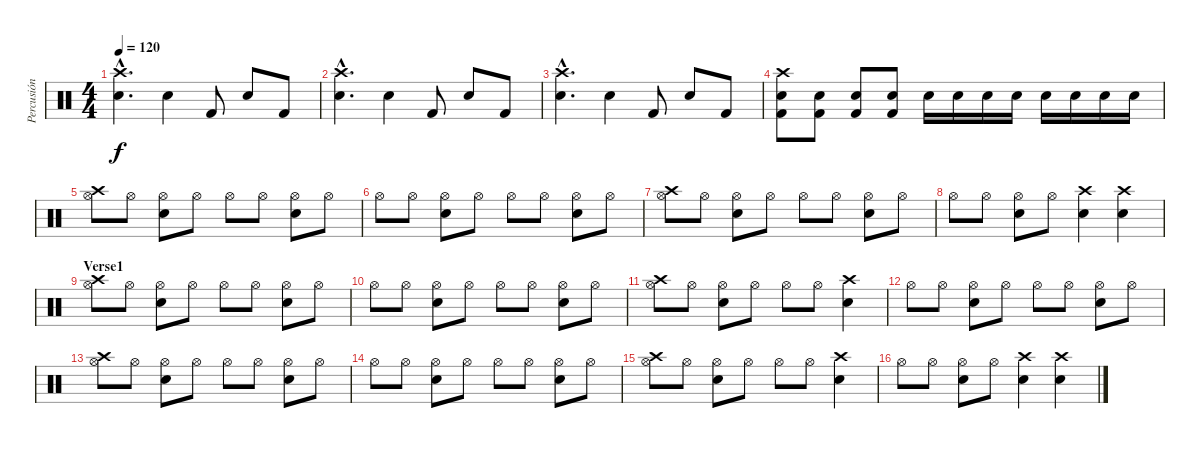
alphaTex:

\track ("Percusión" "Percusión") {instrument percussion}
\staff {score}
\articulation defaults
\ts (4 4)
\tempo 120
\clef neutral
\ks c
("Crash high (hit)"{hac} "Snare (hit) 2"{hac}).4{d dy f} "Snare (hit) 2".4 "Kick (hit) 2".8 "Snare (hit) 2".8 "Kick (hit) 2".8 |
("Crash high (hit)"{hac} "Snare (hit) 2"{hac}).4{d} "Snare (hit) 2".4 "Kick (hit) 2".8 "Snare (hit) 2".8 "Kick (hit) 2".8 |
("Crash high (hit)"{hac} "Snare (hit) 2"{hac}).4{d} "Snare (hit) 2".4 "Kick (hit) 2".8 "Snare (hit) 2".8 "Kick (hit) 2".8 |
("Crash high (hit)" "Snare (hit) 2" "Kick (hit) 2").8 ("Snare (hit) 2" "Kick (hit) 2").8 ("Snare (hit) 2" "Kick (hit) 2").8 ("Snare (hit) 2" "Kick (hit) 2").8 "Snare (hit) 2".16 "Snare (hit) 2"{x}.16 "Snare (hit) 2".16 "Snare (hit) 2".16 "Snare (hit) 2".16 "Snare (hit) 2".16 "Snare (hit) 2".16 "Snare (hit) 2".16 |
("Hi-Hat (open)" "Crash high (hit)").8 "Hi-Hat (open)".8 ("Hi-Hat (open)" "Snare (hit) 2").8 "Hi-Hat (open)".8 "Hi-Hat (open)".8 "Hi-Hat (open)".8 ("Hi-Hat (open)" "Snare (hit) 2").8 "Hi-Hat (open)".8 |
"Hi-Hat (open)".8 "Hi-Hat (open)".8 ("Hi-Hat (open)" "Snare (hit) 2").8 "Hi-Hat (open)".8 "Hi-Hat (open)".8 "Hi-Hat (open)".8 ("Hi-Hat (open)" "Snare (hit) 2").8 "Hi-Hat (open)".8 |
("Hi-Hat (open)" "Crash high (hit)").8 "Hi-Hat (open)".8 ("Hi-Hat (open)" "Snare (hit) 2").8 "Hi-Hat (open)".8 "Hi-Hat (open)".8 "Hi-Hat (open)".8 ("Hi-Hat (open)" "Snare (hit) 2").8 "Hi-Hat (open)".8 |
"Hi-Hat (open)".8 "Hi-Hat (open)".8 ("Hi-Hat (open)" "Snare (hit) 2").8 "Hi-Hat (open)".8 ("Snare (hit) 2" "Crash high (hit)").4 ("Snare (hit) 2" "Crash high (hit)").4 |
\section ("" "Verse1")
("Hi-Hat (open)" "Crash high (hit)").8 "Hi-Hat (open)".8 ("Hi-Hat (open)" "Snare (hit) 2").8 "Hi-Hat (open)".8 "Hi-Hat (open)".8 "Hi-Hat (open)".8 ("Hi-Hat (open)" "Snare (hit) 2").8 "Hi-Hat (open)".8 |
"Hi-Hat (open)".8 "Hi-Hat (open)".8 ("Hi-Hat (open)" "Snare (hit) 2").8 "Hi-Hat (open)".8 "Hi-Hat (open)".8 "Hi-Hat (open)".8 ("Hi-Hat (open)" "Snare (hit) 2").8 "Hi-Hat (open)".8 |
("Hi-Hat (open)" "Crash high (hit)").8 "Hi-Hat (open)".8 ("Hi-Hat (open)" "Snare (hit) 2").8 "Hi-Hat (open)".8 "Hi-Hat (open)".8 "Hi-Hat (open)".8 ("Crash high (hit)" "Snare (hit) 2").4 |
"Hi-Hat (open)".8 "Hi-Hat (open)".8 ("Hi-Hat (open)" "Snare (hit) 2").8 "Hi-Hat (open)".8 "Hi-Hat (open)".8 "Hi-Hat (open)".8 ("Hi-Hat (open)" "Snare (hit) 2").8 "Hi-Hat (open)".8 |
("Hi-Hat (open)" "Crash high (hit)").8 "Hi-Hat (open)".8 ("Hi-Hat (open)" "Snare (hit) 2").8 "Hi-Hat (open)".8 "Hi-Hat (open)".8 "Hi-Hat (open)".8 ("Hi-Hat (open)" "Snare (hit) 2").8 "Hi-Hat (open)".8 |
"Hi-Hat (open)".8 "Hi-Hat (open)".8 ("Hi-Hat (open)" "Snare (hit) 2").8 "Hi-Hat (open)".8 "Hi-Hat (open)".8 "Hi-Hat (open)".8 ("Hi-Hat (open)" "Snare (hit) 2").8 "Hi-Hat (open)".8 |
("Hi-Hat (open)" "Crash high (hit)").8 "Hi-Hat (open)".8 ("Hi-Hat (open)" "Snare (hit) 2").8 "Hi-Hat (open)".8 "Hi-Hat (open)".8 "Hi-Hat (open)".8 ("Crash high (hit)" "Snare (hit) 2").4 |
"Hi-Hat (open)".8 "Hi-Hat (open)".8 ("Hi-Hat (open)" "Snare (hit) 2").8 "Hi-Hat (open)".8 ("Snare (hit) 2" "Crash high (hit)").4 ("Snare (hit) 2" "Crash high (hit)").4
